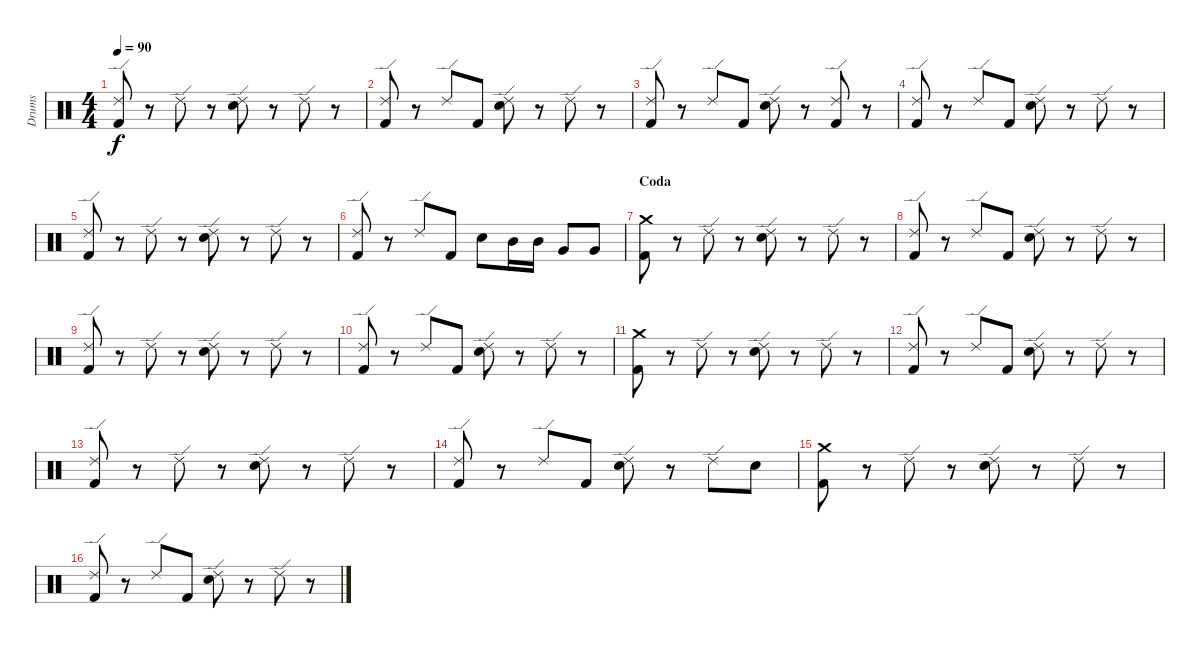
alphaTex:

\track ("Drums" "Drums") {instrument percussion}
\staff {score}
\articulation defaults
\ts (4 4)
\tempo 90
\clef neutral
\ks c
("Ride (edge) 2" "Kick (hit) 2").8{dy f} r.8 "Ride (edge) 2".8 r.8 ("Ride (edge) 2" "Snare (hit) 2").8 r.8 "Ride (edge) 2".8 r.8 |
("Ride (edge) 2" "Kick (hit) 2").8 r.8 "Ride (edge) 2".8 "Kick (hit) 2".8 ("Ride (edge) 2" "Snare (hit) 2").8 r.8 "Ride (edge) 2".8 r.8 |
("Ride (edge) 2" "Kick (hit) 2").8 r.8 "Ride (edge) 2".8 "Kick (hit) 2".8 ("Ride (edge) 2" "Snare (hit) 2").8 r.8 ("Ride (edge) 2" "Kick (hit) 2").8 r.8 |
("Ride (edge) 2" "Kick (hit) 2").8 r.8 "Ride (edge) 2".8 "Kick (hit) 2".8 ("Ride (edge) 2" "Snare (hit) 2").8 r.8 "Ride (edge) 2".8 r.8 |
("Ride (edge) 2" "Kick (hit) 2").8 r.8 "Ride (edge) 2".8 r.8 ("Ride (edge) 2" "Snare (hit) 2").8 r.8 "Ride (edge) 2".8 r.8 |
("Ride (edge) 2" "Kick (hit) 2").8 r.8 "Ride (edge) 2".8 "Kick (hit) 2".8 "Snare (hit) 2".8 "Mid Tom (hit)".16 "Mid Tom (hit)".16 "Very Low Tom (hit)".8 "Very Low Tom (hit)".8 |
\section ("" "Coda")
("Crash medium (hit)" "Kick (hit) 2").8 r.8 "Ride (edge) 2".8 r.8 ("Ride (edge) 2" "Snare (hit) 2").8 r.8 "Ride (edge) 2".8 r.8 |
("Ride (edge) 2" "Kick (hit) 2").8 r.8 "Ride (edge) 2".8 "Kick (hit) 2".8 ("Ride (edge) 2" "Snare (hit) 2").8 r.8 "Ride (edge) 2".8 r.8 |
("Ride (edge) 2" "Kick (hit) 2").8 r.8 "Ride (edge) 2".8 r.8 ("Ride (edge) 2" "Snare (hit) 2").8 r.8 "Ride (edge) 2".8 r.8 |
("Ride (edge) 2" "Kick (hit) 2").8 r.8 "Ride (edge) 2".8 "Kick (hit) 2".8 ("Ride (edge) 2" "Snare (hit) 2").8 r.8 "Ride (edge) 2".8 r.8 |
("Crash medium (hit)" "Kick (hit) 2").8 r.8 "Ride (edge) 2".8 r.8 ("Ride (edge) 2" "Snare (hit) 2").8 r.8 "Ride (edge) 2".8 r.8 |
("Ride (edge) 2" "Kick (hit) 2").8 r.8 "Ride (edge) 2".8 "Kick (hit) 2".8 ("Ride (edge) 2" "Snare (hit) 2").8 r.8 "Ride (edge) 2".8 r.8 |
("Ride (edge) 2" "Kick (hit) 2").8 r.8 "Ride (edge) 2".8 r.8 ("Ride (edge) 2" "Snare (hit) 2").8 r.8 "Ride (edge) 2".8 r.8 |
("Ride (edge) 2" "Kick (hit) 2").8 r.8 "Ride (edge) 2".8 "Kick (hit) 2".8 ("Ride (edge) 2" "Snare (hit) 2").8 r.8 "Ride (edge) 2".8 "Snare (hit) 2".8 |
("Crash medium (hit)" "Kick (hit) 2").8 r.8 "Ride (edge) 2".8 r.8 ("Ride (edge) 2" "Snare (hit) 2").8 r.8 "Ride (edge) 2".8 r.8 |
("Ride (edge) 2" "Kick (hit) 2").8 r.8 "Ride (edge) 2".8 "Kick (hit) 2".8 ("Ride (edge) 2" "Snare (hit) 2").8 r.8 "Ride (edge) 2".8 r.8
